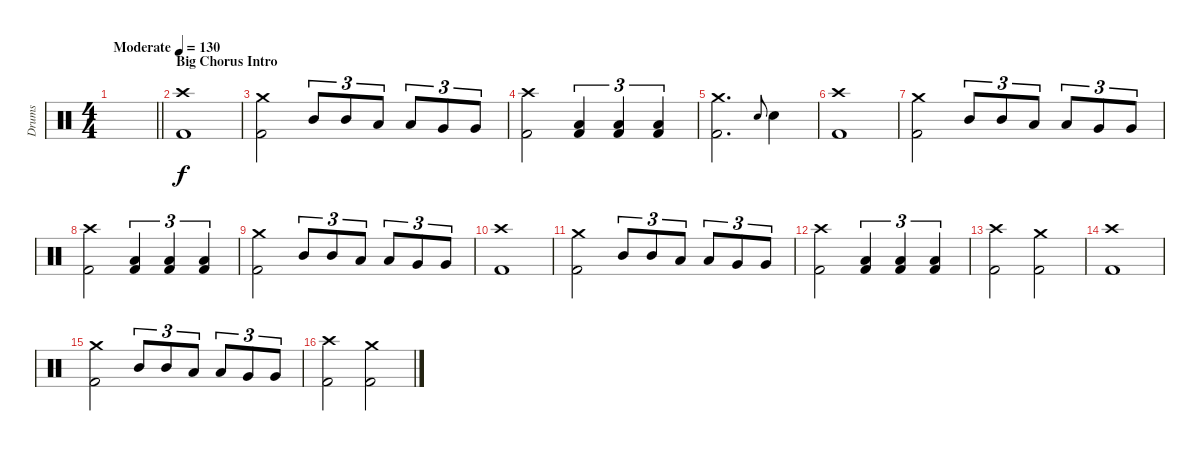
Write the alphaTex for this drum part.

\track ("Drums" "Drums") {instrument percussion}
\staff {score}
\articulation defaults
\ts (4 4)
\tempo (130 "Moderate")
\clef neutral
\barLineRight lightlight
\ks c
|
\section ("" "Big Chorus Intro")
("Crash high (hit)" "Kick (hit) 2").1 |
("Crash medium (hit)" "Kick (hit) 2").2 "Mid Tom (hit)".8{tu (3 2)} "Mid Tom (hit)".8{tu (3 2)} "Low Tom (hit)".8{tu (3 2)} "Low Tom (hit)".8{tu (3 2)} "Very Low Tom (hit)".8{tu (3 2)} "Very Low Tom (hit)".8{tu (3 2)} |
("Crash high (hit)" "Kick (hit) 2").2 ("Low Floor Tom (hit)" "Kick (hit) 2").4{tu (3 2)} ("Low Floor Tom (hit)" "Kick (hit) 2").4{tu (3 2)} ("Low Floor Tom (hit)" "Kick (hit) 2").4{tu (3 2)} |
("Crash medium (hit)" "Kick (hit) 2").2{d} "Snare (hit) 2".8{gr onbeat} "Snare (hit) 2".4 |
("Crash high (hit)" "Kick (hit) 2").1 |
("Crash medium (hit)" "Kick (hit) 2").2 "Mid Tom (hit)".8{tu (3 2)} "Mid Tom (hit)".8{tu (3 2)} "Low Tom (hit)".8{tu (3 2)} "Low Tom (hit)".8{tu (3 2)} "Very Low Tom (hit)".8{tu (3 2)} "Very Low Tom (hit)".8{tu (3 2)} |
("Crash high (hit)" "Kick (hit) 2").2 ("Low Floor Tom (hit)" "Kick (hit) 2").4{tu (3 2)} ("Low Floor Tom (hit)" "Kick (hit) 2").4{tu (3 2)} ("Low Floor Tom (hit)" "Kick (hit) 2").4{tu (3 2)} |
("Crash medium (hit)" "Kick (hit) 2").2 "Mid Tom (hit)".8{tu (3 2)} "Mid Tom (hit)".8{tu (3 2)} "Low Tom (hit)".8{tu (3 2)} "Low Tom (hit)".8{tu (3 2)} "Very Low Tom (hit)".8{tu (3 2)} "Very Low Tom (hit)".8{tu (3 2)} |
("Crash high (hit)" "Kick (hit) 2").1 |
("Crash medium (hit)" "Kick (hit) 2").2 "Mid Tom (hit)".8{tu (3 2)} "Mid Tom (hit)".8{tu (3 2)} "Low Tom (hit)".8{tu (3 2)} "Low Tom (hit)".8{tu (3 2)} "Very Low Tom (hit)".8{tu (3 2)} "Very Low Tom (hit)".8{tu (3 2)} |
("Crash high (hit)" "Kick (hit) 2").2 ("Low Floor Tom (hit)" "Kick (hit) 2").4{tu (3 2)} ("Low Floor Tom (hit)" "Kick (hit) 2").4{tu (3 2)} ("Low Floor Tom (hit)" "Kick (hit) 2").4{tu (3 2)} |
("Crash high (hit)" "Kick (hit) 2").2 ("Crash medium (hit)" "Kick (hit) 2").2 |
("Crash high (hit)" "Kick (hit) 2").1 |
("Crash medium (hit)" "Kick (hit) 2").2 "Mid Tom (hit)".8{tu (3 2)} "Mid Tom (hit)".8{tu (3 2)} "Low Tom (hit)".8{tu (3 2)} "Low Tom (hit)".8{tu (3 2)} "Very Low Tom (hit)".8{tu (3 2)} "Very Low Tom (hit)".8{tu (3 2)} |
("Crash high (hit)" "Kick (hit) 2").2 ("Crash medium (hit)" "Kick (hit) 2").2
